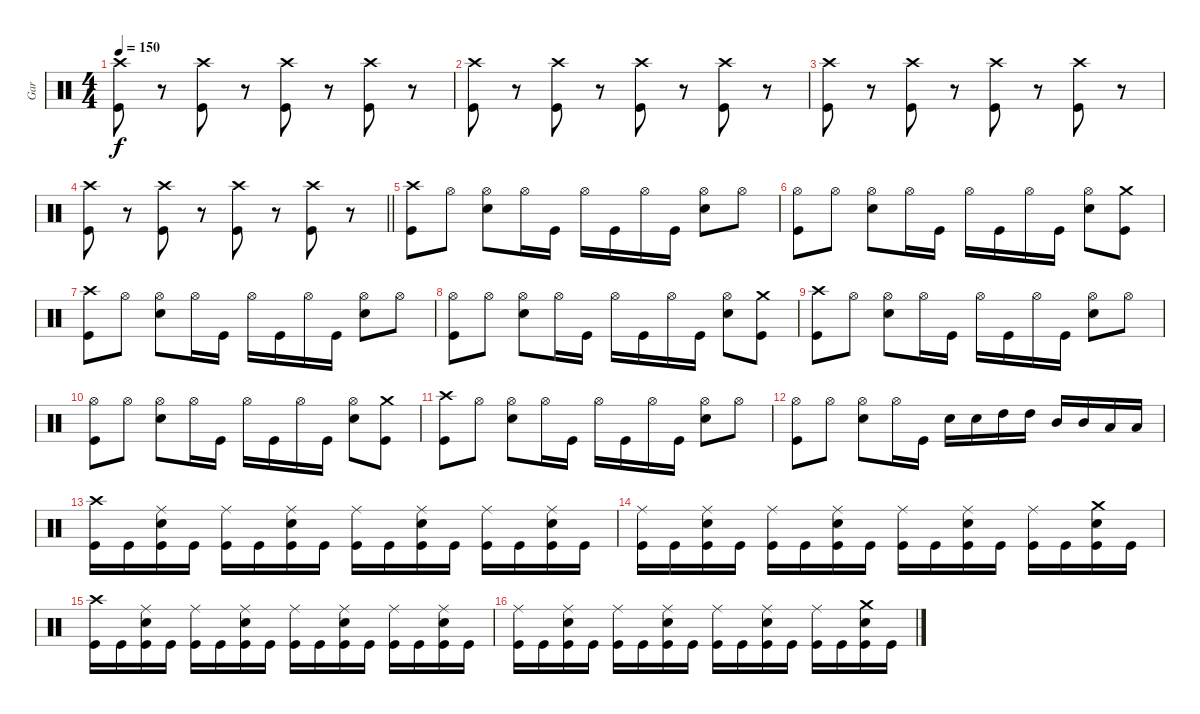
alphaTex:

\track ("Gar" "Gar") {instrument percussion}
\staff {score}
\articulation defaults
\ts (4 4)
\tempo 150
\clef neutral
\ks c
("Crash high (hit)" "Kick (hit)").8{dy f} r.8 ("Crash high (hit)" "Kick (hit)").8 r.8 ("Crash high (hit)" "Kick (hit)").8 r.8 ("Crash high (hit)" "Kick (hit)").8 r.8 |
("Crash high (hit)" "Kick (hit)").8 r.8 ("Crash high (hit)" "Kick (hit)").8 r.8 ("Crash high (hit)" "Kick (hit)").8 r.8 ("Crash high (hit)" "Kick (hit)").8 r.8 |
("Crash high (hit)" "Kick (hit)").8 r.8 ("Crash high (hit)" "Kick (hit)").8 r.8 ("Crash high (hit)" "Kick (hit)").8 r.8 ("Crash high (hit)" "Kick (hit)").8 r.8 |
\barLineRight lightlight
("Crash high (hit)" "Kick (hit)").8 r.8 ("Crash high (hit)" "Kick (hit)").8 r.8 ("Crash high (hit)" "Kick (hit)").8 r.8 ("Crash high (hit)" "Kick (hit)").8 r.8 |
("Crash high (hit)" "Kick (hit)").8 "Hi-Hat (open)".8 ("Hi-Hat (open)" "Snare (hit) 2").8 "Hi-Hat (open)".16 "Kick (hit)".16 "Hi-Hat (open)".16 "Kick (hit)".16 "Hi-Hat (open)".16 "Kick (hit)".16 ("Hi-Hat (open)" "Snare (hit) 2").8 "Hi-Hat (open)".8 |
("Hi-Hat (open)" "Kick (hit)").8 "Hi-Hat (open)".8 ("Hi-Hat (open)" "Snare (hit) 2").8 "Hi-Hat (open)".16 "Kick (hit)".16 "Hi-Hat (open)".16 "Kick (hit)".16 "Hi-Hat (open)".16 "Kick (hit)".16 ("Hi-Hat (open)" "Snare (hit) 2").8 ("Crash medium (hit)" "Kick (hit)").8 |
("Crash high (hit)" "Kick (hit)").8 "Hi-Hat (open)".8 ("Hi-Hat (open)" "Snare (hit) 2").8 "Hi-Hat (open)".16 "Kick (hit)".16 "Hi-Hat (open)".16 "Kick (hit)".16 "Hi-Hat (open)".16 "Kick (hit)".16 ("Hi-Hat (open)" "Snare (hit) 2").8 "Hi-Hat (open)".8 |
("Hi-Hat (open)" "Kick (hit)").8 "Hi-Hat (open)".8 ("Hi-Hat (open)" "Snare (hit) 2").8 "Hi-Hat (open)".16 "Kick (hit)".16 "Hi-Hat (open)".16 "Kick (hit)".16 "Hi-Hat (open)".16 "Kick (hit)".16 ("Hi-Hat (open)" "Snare (hit) 2").8 ("Crash medium (hit)" "Kick (hit)").8 |
("Crash high (hit)" "Kick (hit)").8 "Hi-Hat (open)".8 ("Hi-Hat (open)" "Snare (hit) 2").8 "Hi-Hat (open)".16 "Kick (hit)".16 "Hi-Hat (open)".16 "Kick (hit)".16 "Hi-Hat (open)".16 "Kick (hit)".16 ("Hi-Hat (open)" "Snare (hit) 2").8 "Hi-Hat (open)".8 |
("Hi-Hat (open)" "Kick (hit)").8 "Hi-Hat (open)".8 ("Hi-Hat (open)" "Snare (hit) 2").8 "Hi-Hat (open)".16 "Kick (hit)".16 "Hi-Hat (open)".16 "Kick (hit)".16 "Hi-Hat (open)".16 "Kick (hit)".16 ("Hi-Hat (open)" "Snare (hit) 2").8 ("Crash medium (hit)" "Kick (hit)").8 |
("Crash high (hit)" "Kick (hit)").8 "Hi-Hat (open)".8 ("Hi-Hat (open)" "Snare (hit) 2").8 "Hi-Hat (open)".16 "Kick (hit)".16 "Hi-Hat (open)".16 "Kick (hit)".16 "Hi-Hat (open)".16 "Kick (hit)".16 ("Hi-Hat (open)" "Snare (hit) 2").8 "Hi-Hat (open)".8 |
("Hi-Hat (open)" "Kick (hit)").8 "Hi-Hat (open)".8 ("Hi-Hat (open)" "Snare (hit) 2").8 "Hi-Hat (open)".16 "Kick (hit)".16 "Snare (hit) 2".16 "Snare (hit) 2".16 "High Tom (hit)".16 "High Tom (hit)".16 "Mid Tom (hit)".16 "Mid Tom (hit)".16 "Low Tom (hit)".16 "Low Tom (hit)".16 |
("Crash high (hit)" "Kick (hit)").16 "Kick (hit)".16 ("Ride (middle)" "Snare (hit) 2" "Kick (hit)").16 "Kick (hit)".16 ("Ride (middle)" "Kick (hit)").16 "Kick (hit)".16 ("Ride (middle)" "Snare (hit) 2" "Kick (hit)").16 "Kick (hit)".16 ("Ride (middle)" "Kick (hit)").16 "Kick (hit)".16 ("Ride (middle)" "Snare (hit) 2" "Kick (hit)").16 "Kick (hit)".16 ("Ride (middle)" "Kick (hit)").16 "Kick (hit)".16 ("Ride (middle)" "Snare (hit) 2" "Kick (hit)").16 "Kick (hit)".16 |
("Ride (middle)" "Kick (hit)").16 "Kick (hit)".16 ("Ride (middle)" "Snare (hit) 2" "Kick (hit)").16 "Kick (hit)".16 ("Ride (middle)" "Kick (hit)").16 "Kick (hit)".16 ("Ride (middle)" "Snare (hit) 2" "Kick (hit)").16 "Kick (hit)".16 ("Ride (middle)" "Kick (hit)").16 "Kick (hit)".16 ("Ride (middle)" "Snare (hit) 2" "Kick (hit)").16 "Kick (hit)".16 ("Ride (middle)" "Kick (hit)").16 "Kick (hit)".16 ("Crash medium (hit)" "Snare (hit) 2" "Kick (hit)").16 "Kick (hit)".16 |
("Crash high (hit)" "Kick (hit)").16 "Kick (hit)".16 ("Ride (middle)" "Snare (hit) 2" "Kick (hit)").16 "Kick (hit)".16 ("Ride (middle)" "Kick (hit)").16 "Kick (hit)".16 ("Ride (middle)" "Snare (hit) 2" "Kick (hit)").16 "Kick (hit)".16 ("Ride (middle)" "Kick (hit)").16 "Kick (hit)".16 ("Ride (middle)" "Snare (hit) 2" "Kick (hit)").16 "Kick (hit)".16 ("Ride (middle)" "Kick (hit)").16 "Kick (hit)".16 ("Ride (middle)" "Snare (hit) 2" "Kick (hit)").16 "Kick (hit)".16 |
("Ride (middle)" "Kick (hit)").16 "Kick (hit)".16 ("Ride (middle)" "Snare (hit) 2" "Kick (hit)").16 "Kick (hit)".16 ("Ride (middle)" "Kick (hit)").16 "Kick (hit)".16 ("Ride (middle)" "Snare (hit) 2" "Kick (hit)").16 "Kick (hit)".16 ("Ride (middle)" "Kick (hit)").16 "Kick (hit)".16 ("Ride (middle)" "Snare (hit) 2" "Kick (hit)").16 "Kick (hit)".16 ("Ride (middle)" "Kick (hit)").16 "Kick (hit)".16 ("Crash medium (hit)" "Snare (hit) 2" "Kick (hit)").16 "Kick (hit)".16
